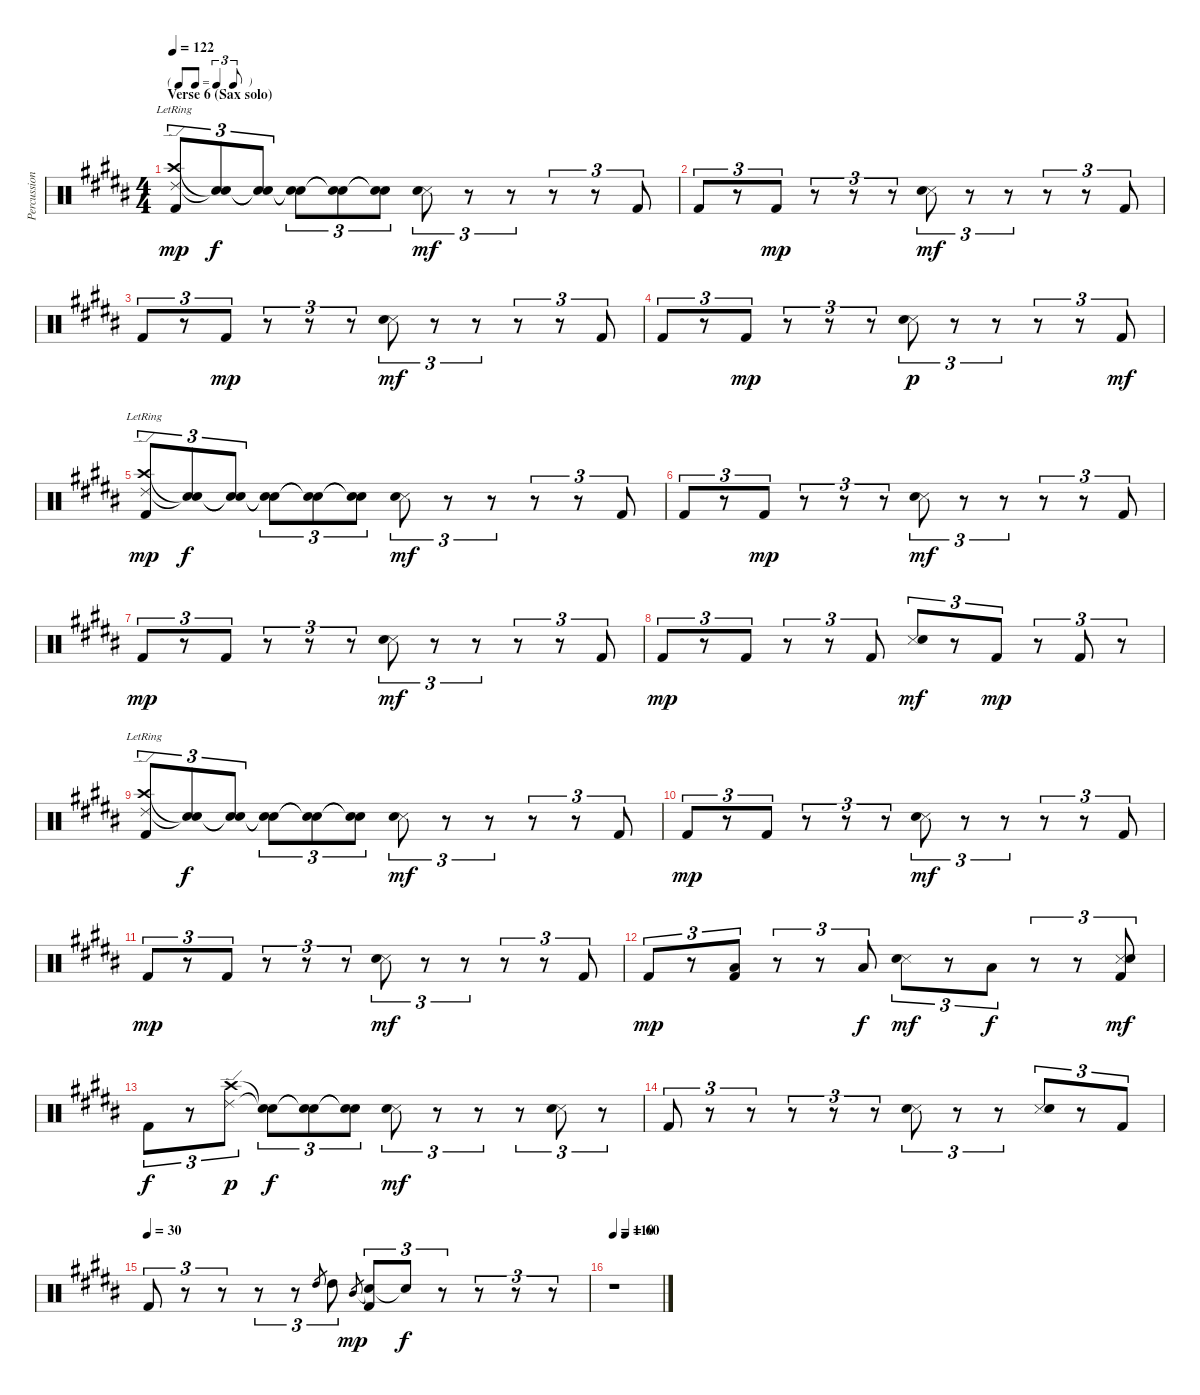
\track ("Percussion" "Percussion") {instrument percussion}
\staff {score}
\articulation defaults
\ts (4 4)
\tf triplet8th
\section ("" "Verse 6 (Sax solo)")
\tempo 122
\clef neutral
\ks g#minor
("Ride (edge) 2"{lr} "Crash high (hit)"{lr} "Kick (hit) 2").8{tu (3 2) dy mp} ("Snare (hit)"{t} "Snare (hit)"{t}).8{tu (3 2) dy f} ("Snare (hit)"{t} "Snare (hit)"{t}).8{tu (3 2)} ("Snare (hit)"{t} "Snare (hit)"{t}).8{tu (3 2)} ("Snare (hit)"{t} "Snare (hit)"{t}).8{tu (3 2)} ("Snare (hit)"{t} "Snare (hit)"{t}).8{tu (3 2)} ("Snare (side stick) 3" "Snare (hit) 2").8{tu (3 2) dy mf} r.8{tu (3 2)} r.8{tu (3 2)} r.8{tu (3 2)} r.8{tu (3 2)} "Kick (hit) 2".8{tu (3 2)} |
"Kick (hit) 2".8{tu (3 2)} r.8{tu (3 2)} "Kick (hit) 2".8{tu (3 2) dy mp} r.8{tu (3 2)} r.8{tu (3 2)} r.8{tu (3 2)} ("Snare (side stick) 3" "Snare (hit) 2").8{tu (3 2) dy mf} r.8{tu (3 2)} r.8{tu (3 2)} r.8{tu (3 2)} r.8{tu (3 2)} "Kick (hit) 2".8{tu (3 2)} |
"Kick (hit) 2".8{tu (3 2)} r.8{tu (3 2)} "Kick (hit) 2".8{tu (3 2) dy mp} r.8{tu (3 2)} r.8{tu (3 2)} r.8{tu (3 2)} ("Snare (side stick) 3" "Snare (hit) 2").8{tu (3 2) dy mf} r.8{tu (3 2)} r.8{tu (3 2)} r.8{tu (3 2)} r.8{tu (3 2)} "Kick (hit) 2".8{tu (3 2)} |
"Kick (hit) 2".8{tu (3 2)} r.8{tu (3 2)} "Kick (hit) 2".8{tu (3 2) dy mp} r.8{tu (3 2)} r.8{tu (3 2)} r.8{tu (3 2)} ("Snare (side stick) 3" "Snare (hit) 2").8{tu (3 2) dy p} r.8{tu (3 2)} r.8{tu (3 2)} r.8{tu (3 2)} r.8{tu (3 2)} "Kick (hit) 2".8{tu (3 2) dy mf} |
("Ride (edge) 2"{lr} "Crash high (hit)"{lr} "Kick (hit) 2").8{tu (3 2) dy mp} ("Snare (hit)"{t} "Snare (hit)"{t}).8{tu (3 2) dy f} ("Snare (hit)"{t} "Snare (hit)"{t}).8{tu (3 2)} ("Snare (hit)"{t} "Snare (hit)"{t}).8{tu (3 2)} ("Snare (hit)"{t} "Snare (hit)"{t}).8{tu (3 2)} ("Snare (hit)"{t} "Snare (hit)"{t}).8{tu (3 2)} ("Snare (side stick) 3" "Snare (hit) 2").8{tu (3 2) dy mf} r.8{tu (3 2)} r.8{tu (3 2)} r.8{tu (3 2)} r.8{tu (3 2)} "Kick (hit) 2".8{tu (3 2)} |
"Kick (hit) 2".8{tu (3 2)} r.8{tu (3 2)} "Kick (hit) 2".8{tu (3 2) dy mp} r.8{tu (3 2)} r.8{tu (3 2)} r.8{tu (3 2)} ("Snare (side stick) 3" "Snare (hit) 2").8{tu (3 2) dy mf} r.8{tu (3 2)} r.8{tu (3 2)} r.8{tu (3 2)} r.8{tu (3 2)} "Kick (hit) 2".8{tu (3 2)} |
"Kick (hit) 2".8{tu (3 2) dy mp} r.8{tu (3 2)} "Kick (hit) 2".8{tu (3 2)} r.8{tu (3 2)} r.8{tu (3 2)} r.8{tu (3 2)} ("Snare (side stick) 3" "Snare (hit) 2").8{tu (3 2) dy mf} r.8{tu (3 2)} r.8{tu (3 2)} r.8{tu (3 2)} r.8{tu (3 2)} "Kick (hit) 2".8{tu (3 2)} |
"Kick (hit) 2".8{tu (3 2) dy mp} r.8{tu (3 2)} "Kick (hit) 2".8{tu (3 2)} r.8{tu (3 2)} r.8{tu (3 2)} "Kick (hit) 2".8{tu (3 2)} ("Snare (side stick) 3" "Snare (hit) 2").8{tu (3 2) dy mf} r.8{tu (3 2)} "Kick (hit) 2".8{tu (3 2) dy mp} r.8{tu (3 2)} "Kick (hit) 2".8{tu (3 2)} r.8{tu (3 2)} |
("Ride (edge) 2"{lr} "Crash high (hit)"{lr} "Kick (hit) 2").8{tu (3 2)} ("Snare (hit)"{t} "Snare (hit)"{t}).8{tu (3 2) dy f} ("Snare (hit)"{t} "Snare (hit)"{t}).8{tu (3 2)} ("Snare (hit)"{t} "Snare (hit)"{t}).8{tu (3 2)} ("Snare (hit)"{t} "Snare (hit)"{t}).8{tu (3 2)} ("Snare (hit)"{t} "Snare (hit)"{t}).8{tu (3 2)} ("Snare (side stick) 3" "Snare (hit) 2").8{tu (3 2) dy mf} r.8{tu (3 2)} r.8{tu (3 2)} r.8{tu (3 2)} r.8{tu (3 2)} "Kick (hit) 2".8{tu (3 2)} |
"Kick (hit) 2".8{tu (3 2) dy mp} r.8{tu (3 2)} "Kick (hit) 2".8{tu (3 2)} r.8{tu (3 2)} r.8{tu (3 2)} r.8{tu (3 2)} ("Snare (side stick) 3" "Snare (hit) 2").8{tu (3 2) dy mf} r.8{tu (3 2)} r.8{tu (3 2)} r.8{tu (3 2)} r.8{tu (3 2)} "Kick (hit) 2".8{tu (3 2)} |
"Kick (hit) 2".8{tu (3 2) dy mp} r.8{tu (3 2)} "Kick (hit) 2".8{tu (3 2)} r.8{tu (3 2)} r.8{tu (3 2)} r.8{tu (3 2)} ("Snare (side stick) 3" "Snare (hit) 2").8{tu (3 2) dy mf} r.8{tu (3 2)} r.8{tu (3 2)} r.8{tu (3 2)} r.8{tu (3 2)} "Kick (hit) 2".8{tu (3 2)} |
"Kick (hit) 2".8{tu (3 2) dy mp} r.8{tu (3 2)} ("Low Tom (hit)" "Kick (hit) 2").8{tu (3 2)} r.8{tu (3 2)} r.8{tu (3 2)} "Low Tom (hit)".8{tu (3 2) dy f} ("Snare (side stick) 3" "Snare (hit) 2").8{tu (3 2) dy mf} r.8{tu (3 2)} "Low Tom (hit)".8{tu (3 2) dy f} r.8{tu (3 2)} r.8{tu (3 2)} ("Snare (side stick) 3" "Snare (hit) 2" "Kick (hit) 2").8{tu (3 2) dy mf} |
"Kick (hit) 2".8{tu (3 2) dy f} r.8{tu (3 2)} ("Ride (edge) 2" "Crash high (hit)").8{tu (3 2) dy p} ("Snare (hit)"{t} "Snare (hit)"{t}).8{tu (3 2) dy f} ("Snare (hit)"{t} "Snare (hit)"{t}).8{tu (3 2)} ("Snare (hit)"{t} "Snare (hit)"{t}).8{tu (3 2)} ("Snare (side stick) 3" "Snare (hit) 2").8{tu (3 2) dy mf} r.8{tu (3 2)} r.8{tu (3 2)} r.8{tu (3 2)} ("Snare (side stick) 3" "Snare (hit) 2").8{tu (3 2)} r.8{tu (3 2)} |
"Kick (hit) 2".8{tu (3 2)} r.8{tu (3 2)} r.8{tu (3 2)} r.8{tu (3 2)} r.8{tu (3 2)} r.8{tu (3 2)} ("Snare (side stick) 3" "Snare (hit) 2").8{tu (3 2)} r.8{tu (3 2)} r.8{tu (3 2)} ("Snare (side stick) 3" "Snare (hit) 2").8{tu (3 2)} r.8{tu (3 2)} "Kick (hit) 2".8{tu (3 2)} |
\tempo (30)
"Kick (hit) 2".8{tu (3 2)} r.8{tu (3 2)} r.8{tu (3 2)} r.8{tu (3 2)} r.8{tu (3 2)} "High Tom (hit)".8{gr} "High Tom (hit)".8{tu (3 2)} "Mid Tom (hit)".8{gr dy mp} ("Snare (hit)"{t} "Kick (hit) 2").8{tu (3 2)} "Snare (hit)"{t}.8{tu (3 2) dy f} r.8{tu (3 2)} r.8{tu (3 2)} r.8{tu (3 2)} r.8{tu (3 2)} |
\tempo 110
\tempo (60 0.25)
r.1
